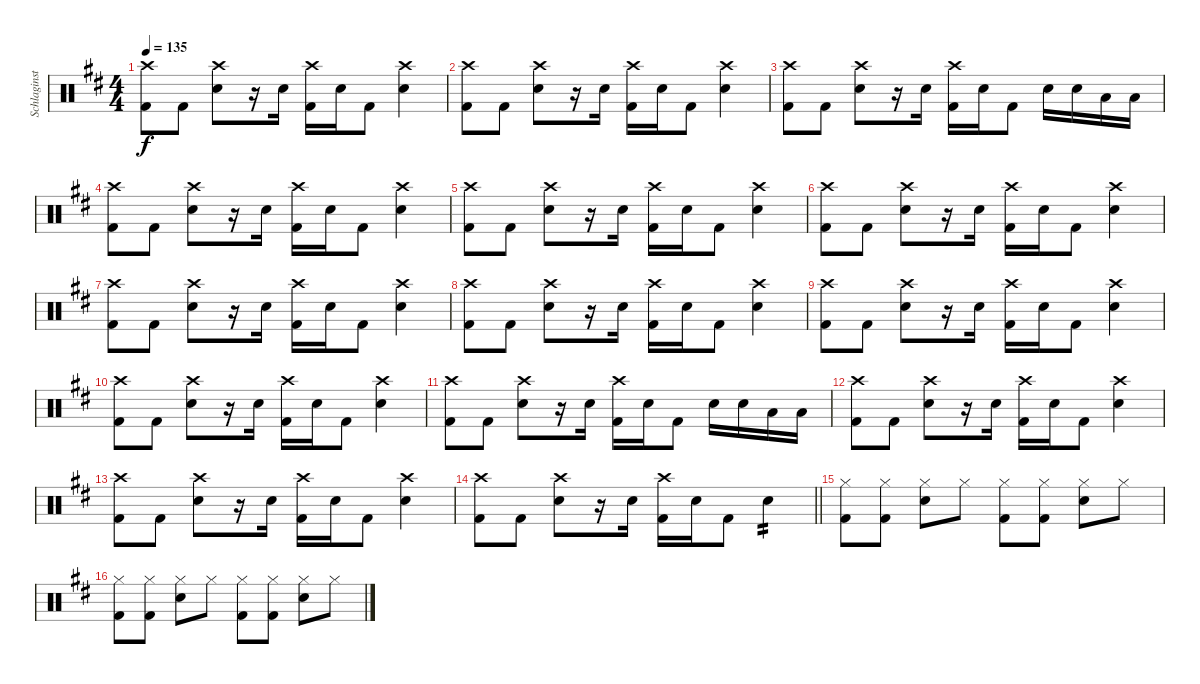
\track ("Schlaginstrumente - Auswahl" "Schlaginst") {instrument percussion}
\staff {score}
\articulation defaults
\ts (4 4)
\tempo 135
\clef neutral
\ks d
("Crash high (hit)" "Kick (hit) 2").8{dy f} "Kick (hit) 2".8 ("Crash high (hit)" "Snare (hit) 2").8 r.16 "Snare (hit) 2".16 ("Crash high (hit)" "Kick (hit) 2").16 "Snare (hit) 2".16 "Kick (hit) 2".8 ("Crash high (hit)" "Snare (hit) 2").4 |
("Crash high (hit)" "Kick (hit) 2").8 "Kick (hit) 2".8 ("Crash high (hit)" "Snare (hit) 2").8 r.16 "Snare (hit) 2".16 ("Crash high (hit)" "Kick (hit) 2").16 "Snare (hit) 2".16 "Kick (hit) 2".8 ("Crash high (hit)" "Snare (hit) 2").4 |
("Crash high (hit)" "Kick (hit) 2").8 "Kick (hit) 2".8 ("Crash high (hit)" "Snare (hit) 2").8 r.16 "Snare (hit) 2".16 ("Crash high (hit)" "Kick (hit) 2").16 "Snare (hit) 2".16 "Kick (hit) 2".8 "Snare (hit) 2".16 "Snare (hit) 2".16 "Low Tom (hit)".16 "Low Tom (hit)".16 |
("Crash high (hit)" "Kick (hit) 2").8 "Kick (hit) 2".8 ("Crash high (hit)" "Snare (hit) 2").8 r.16 "Snare (hit) 2".16 ("Crash high (hit)" "Kick (hit) 2").16 "Snare (hit) 2".16 "Kick (hit) 2".8 ("Crash high (hit)" "Snare (hit) 2").4 |
("Crash high (hit)" "Kick (hit) 2").8 "Kick (hit) 2".8 ("Crash high (hit)" "Snare (hit) 2").8 r.16 "Snare (hit) 2".16 ("Crash high (hit)" "Kick (hit) 2").16 "Snare (hit) 2".16 "Kick (hit) 2".8 ("Crash high (hit)" "Snare (hit) 2").4 |
("Crash high (hit)" "Kick (hit) 2").8 "Kick (hit) 2".8 ("Crash high (hit)" "Snare (hit) 2").8 r.16 "Snare (hit) 2".16 ("Crash high (hit)" "Kick (hit) 2").16 "Snare (hit) 2".16 "Kick (hit) 2".8 ("Crash high (hit)" "Snare (hit) 2").4 |
("Crash high (hit)" "Kick (hit) 2").8 "Kick (hit) 2".8 ("Crash high (hit)" "Snare (hit) 2").8 r.16 "Snare (hit) 2".16 ("Crash high (hit)" "Kick (hit) 2").16 "Snare (hit) 2".16 "Kick (hit) 2".8 ("Crash high (hit)" "Snare (hit) 2").4 |
("Crash high (hit)" "Kick (hit) 2").8 "Kick (hit) 2".8 ("Crash high (hit)" "Snare (hit) 2").8 r.16 "Snare (hit) 2".16 ("Crash high (hit)" "Kick (hit) 2").16 "Snare (hit) 2".16 "Kick (hit) 2".8 ("Crash high (hit)" "Snare (hit) 2").4 |
("Crash high (hit)" "Kick (hit) 2").8 "Kick (hit) 2".8 ("Crash high (hit)" "Snare (hit) 2").8 r.16 "Snare (hit) 2".16 ("Crash high (hit)" "Kick (hit) 2").16 "Snare (hit) 2".16 "Kick (hit) 2".8 ("Crash high (hit)" "Snare (hit) 2").4 |
("Crash high (hit)" "Kick (hit) 2").8 "Kick (hit) 2".8 ("Crash high (hit)" "Snare (hit) 2").8 r.16 "Snare (hit) 2".16 ("Crash high (hit)" "Kick (hit) 2").16 "Snare (hit) 2".16 "Kick (hit) 2".8 ("Crash high (hit)" "Snare (hit) 2").4 |
("Crash high (hit)" "Kick (hit) 2").8 "Kick (hit) 2".8 ("Crash high (hit)" "Snare (hit) 2").8 r.16 "Snare (hit) 2".16 ("Crash high (hit)" "Kick (hit) 2").16 "Snare (hit) 2".16 "Kick (hit) 2".8 "Snare (hit) 2".16 "Snare (hit) 2".16 "Low Tom (hit)".16 "Low Tom (hit)".16 |
("Crash high (hit)" "Kick (hit) 2").8 "Kick (hit) 2".8 ("Crash high (hit)" "Snare (hit) 2").8 r.16 "Snare (hit) 2".16 ("Crash high (hit)" "Kick (hit) 2").16 "Snare (hit) 2".16 "Kick (hit) 2".8 ("Crash high (hit)" "Snare (hit) 2").4 |
("Crash high (hit)" "Kick (hit) 2").8 "Kick (hit) 2".8 ("Crash high (hit)" "Snare (hit) 2").8 r.16 "Snare (hit) 2".16 ("Crash high (hit)" "Kick (hit) 2").16 "Snare (hit) 2".16 "Kick (hit) 2".8 ("Crash high (hit)" "Snare (hit) 2").4 |
\barLineRight lightlight
("Crash high (hit)" "Kick (hit) 2").8 "Kick (hit) 2".8 ("Crash high (hit)" "Snare (hit) 2").8 r.16 "Snare (hit) 2".16 ("Crash high (hit)" "Kick (hit) 2").16 "Snare (hit) 2".16 "Kick (hit) 2".8 "Snare (hit) 2".4{tp 2} |
("Hi-Hat (closed)" "Kick (hit) 2").8 ("Hi-Hat (closed)" "Kick (hit) 2").8 ("Hi-Hat (closed)" "Snare (hit) 2").8 "Hi-Hat (closed)".8 ("Hi-Hat (closed)" "Kick (hit) 2").8 ("Hi-Hat (closed)" "Kick (hit) 2").8 ("Hi-Hat (closed)" "Snare (hit) 2").8 "Hi-Hat (closed)".8 |
("Hi-Hat (closed)" "Kick (hit) 2").8 ("Hi-Hat (closed)" "Kick (hit) 2").8 ("Hi-Hat (closed)" "Snare (hit) 2").8 "Hi-Hat (closed)".8 ("Hi-Hat (closed)" "Kick (hit) 2").8 ("Hi-Hat (closed)" "Kick (hit) 2").8 ("Hi-Hat (closed)" "Snare (hit) 2").8 "Hi-Hat (closed)".8
